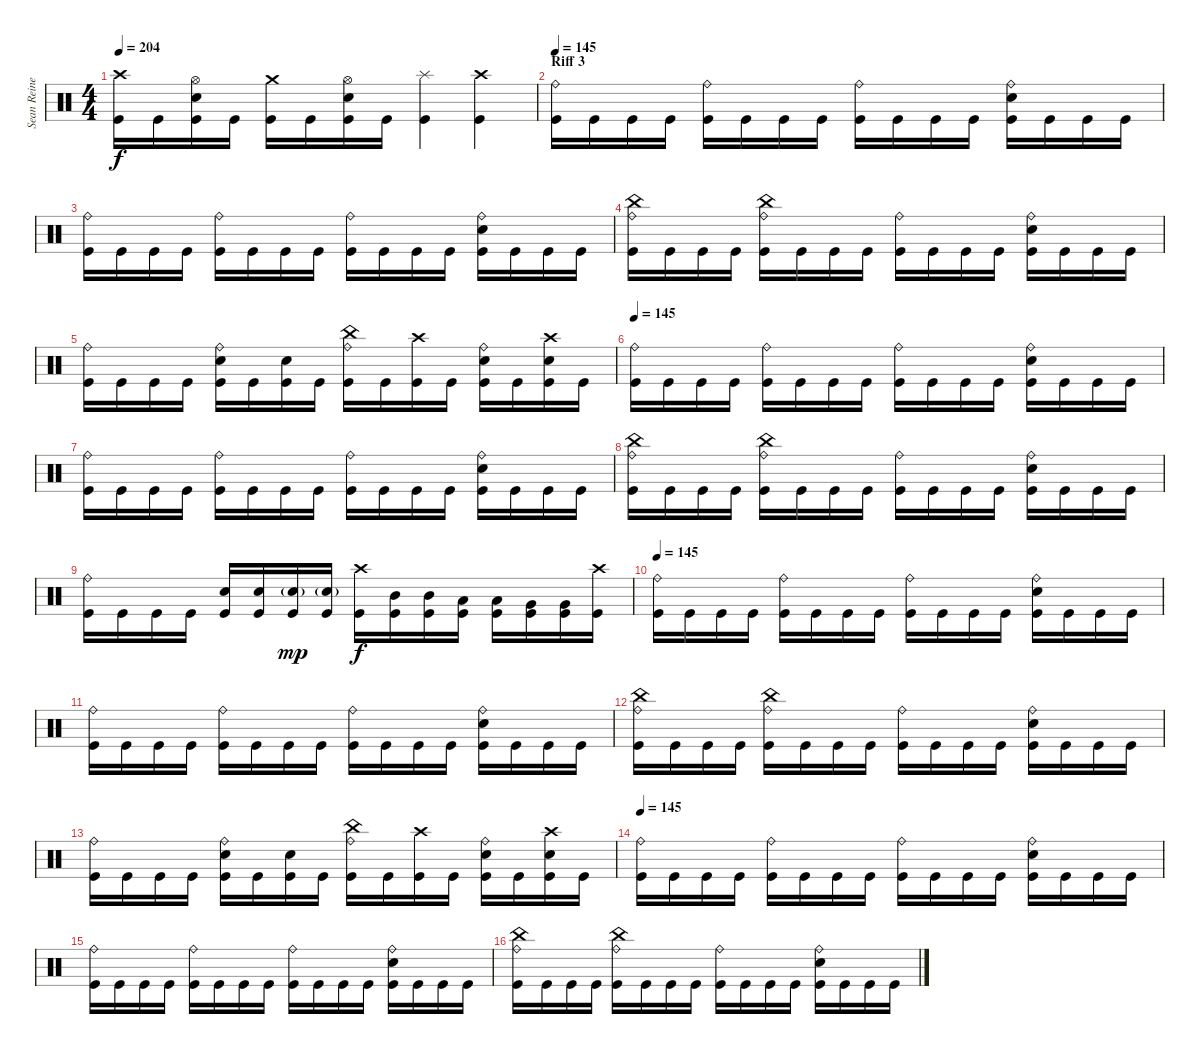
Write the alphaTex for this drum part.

\track ("Sean Reinert" "Sean Reine") {instrument percussion}
\staff {score}
\articulation defaults
\ts (4 4)
\tempo 204
\clef neutral
\ks c
("Crash high (hit)" "Kick (hit)").16{dy f} "Kick (hit)".16 ("Hi-Hat (open)" "Snare (hit) 2" "Kick (hit)").16 "Kick (hit)".16 ("Crash medium (hit)" "Kick (hit)").16 "Kick (hit)".16 ("Hi-Hat (open)" "Snare (hit) 2" "Kick (hit)").16 "Kick (hit)".16 ("Splash (hit)" "Kick (hit)").4 ("Crash high (hit)" "Kick (hit)").4 |
\section ("" "Riff 3")
\tempo 145
("Ride (bell)" "Kick (hit)").16 "Kick (hit)".16 "Kick (hit)".16 "Kick (hit)".16 ("Ride (bell)" "Kick (hit)").16 "Kick (hit)".16 "Kick (hit)".16 "Kick (hit)".16 ("Ride (bell)" "Kick (hit)").16 "Kick (hit)".16 "Kick (hit)".16 "Kick (hit)".16 ("Ride (bell)" "Snare (hit) 2" "Kick (hit)").16 "Kick (hit)".16 "Kick (hit)".16 "Kick (hit)".16 |
("Ride (bell)" "Kick (hit)").16 "Kick (hit)".16 "Kick (hit)".16 "Kick (hit)".16 ("Ride (bell)" "Kick (hit)").16 "Kick (hit)".16 "Kick (hit)".16 "Kick (hit)".16 ("Ride (bell)" "Kick (hit)").16 "Kick (hit)".16 "Kick (hit)".16 "Kick (hit)".16 ("Ride (bell)" "Snare (hit) 2" "Kick (hit)").16 "Kick (hit)".16 "Kick (hit)".16 "Kick (hit)".16 |
("China (hit)" "Ride (bell)" "Kick (hit)").16 "Kick (hit)".16 "Kick (hit)".16 "Kick (hit)".16 ("China (hit)" "Ride (bell)" "Kick (hit)").16 "Kick (hit)".16 "Kick (hit)".16 "Kick (hit)".16 ("Ride (bell)" "Kick (hit)").16 "Kick (hit)".16 "Kick (hit)".16 "Kick (hit)".16 ("Ride (bell)" "Snare (hit) 2" "Kick (hit)").16 "Kick (hit)".16 "Kick (hit)".16 "Kick (hit)".16 |
("Ride (bell)" "Kick (hit)").16 "Kick (hit)".16 "Kick (hit)".16 "Kick (hit)".16 ("Ride (bell)" "Snare (hit) 2" "Kick (hit)").16 "Kick (hit)".16 ("Snare (hit) 2" "Kick (hit)").16 "Kick (hit)".16 ("China (hit)" "Ride (bell)" "Kick (hit)").16 "Kick (hit)".16 ("Crash high (hit)" "Kick (hit)").16 "Kick (hit)".16 ("Ride (bell)" "Snare (hit) 2" "Kick (hit)").16 "Kick (hit)".16 ("Crash high (hit)" "Snare (hit) 2" "Kick (hit)").16 "Kick (hit)".16 |
\tempo 145
("Ride (bell)" "Kick (hit)").16 "Kick (hit)".16 "Kick (hit)".16 "Kick (hit)".16 ("Ride (bell)" "Kick (hit)").16 "Kick (hit)".16 "Kick (hit)".16 "Kick (hit)".16 ("Ride (bell)" "Kick (hit)").16 "Kick (hit)".16 "Kick (hit)".16 "Kick (hit)".16 ("Ride (bell)" "Snare (hit) 2" "Kick (hit)").16 "Kick (hit)".16 "Kick (hit)".16 "Kick (hit)".16 |
("Ride (bell)" "Kick (hit)").16 "Kick (hit)".16 "Kick (hit)".16 "Kick (hit)".16 ("Ride (bell)" "Kick (hit)").16 "Kick (hit)".16 "Kick (hit)".16 "Kick (hit)".16 ("Ride (bell)" "Kick (hit)").16 "Kick (hit)".16 "Kick (hit)".16 "Kick (hit)".16 ("Ride (bell)" "Snare (hit) 2" "Kick (hit)").16 "Kick (hit)".16 "Kick (hit)".16 "Kick (hit)".16 |
("China (hit)" "Ride (bell)" "Kick (hit)").16 "Kick (hit)".16 "Kick (hit)".16 "Kick (hit)".16 ("China (hit)" "Ride (bell)" "Kick (hit)").16 "Kick (hit)".16 "Kick (hit)".16 "Kick (hit)".16 ("Ride (bell)" "Kick (hit)").16 "Kick (hit)".16 "Kick (hit)".16 "Kick (hit)".16 ("Ride (bell)" "Snare (hit) 2" "Kick (hit)").16 "Kick (hit)".16 "Kick (hit)".16 "Kick (hit)".16 |
("Ride (bell)" "Kick (hit)").16 "Kick (hit)".16 "Kick (hit)".16 "Kick (hit)".16 ("Snare (hit) 2" "Kick (hit)").16 ("Snare (hit) 2" "Kick (hit)").16 ("Snare (hit) 2"{g} "Kick (hit)").16{dy mp} ("Snare (hit) 2"{g} "Kick (hit)").16 ("Crash high (hit)" "Kick (hit)").16{dy f} ("Mid Tom (hit)" "Kick (hit)").16 ("Mid Tom (hit)" "Kick (hit)").16 ("Low Tom (hit)" "Kick (hit)").16 ("Low Tom (hit)" "Kick (hit)").16 ("Very Low Tom (hit)" "Kick (hit)").16 ("Very Low Tom (hit)" "Kick (hit)").16 ("Crash high (hit)" "Kick (hit)").16 |
\tempo 145
("Ride (bell)" "Kick (hit)").16 "Kick (hit)".16 "Kick (hit)".16 "Kick (hit)".16 ("Ride (bell)" "Kick (hit)").16 "Kick (hit)".16 "Kick (hit)".16 "Kick (hit)".16 ("Ride (bell)" "Kick (hit)").16 "Kick (hit)".16 "Kick (hit)".16 "Kick (hit)".16 ("Ride (bell)" "Snare (hit) 2" "Kick (hit)").16 "Kick (hit)".16 "Kick (hit)".16 "Kick (hit)".16 |
("Ride (bell)" "Kick (hit)").16 "Kick (hit)".16 "Kick (hit)".16 "Kick (hit)".16 ("Ride (bell)" "Kick (hit)").16 "Kick (hit)".16 "Kick (hit)".16 "Kick (hit)".16 ("Ride (bell)" "Kick (hit)").16 "Kick (hit)".16 "Kick (hit)".16 "Kick (hit)".16 ("Ride (bell)" "Snare (hit) 2" "Kick (hit)").16 "Kick (hit)".16 "Kick (hit)".16 "Kick (hit)".16 |
("China (hit)" "Ride (bell)" "Kick (hit)").16 "Kick (hit)".16 "Kick (hit)".16 "Kick (hit)".16 ("China (hit)" "Ride (bell)" "Kick (hit)").16 "Kick (hit)".16 "Kick (hit)".16 "Kick (hit)".16 ("Ride (bell)" "Kick (hit)").16 "Kick (hit)".16 "Kick (hit)".16 "Kick (hit)".16 ("Ride (bell)" "Snare (hit) 2" "Kick (hit)").16 "Kick (hit)".16 "Kick (hit)".16 "Kick (hit)".16 |
("Ride (bell)" "Kick (hit)").16 "Kick (hit)".16 "Kick (hit)".16 "Kick (hit)".16 ("Ride (bell)" "Snare (hit) 2" "Kick (hit)").16 "Kick (hit)".16 ("Snare (hit) 2" "Kick (hit)").16 "Kick (hit)".16 ("China (hit)" "Ride (bell)" "Kick (hit)").16 "Kick (hit)".16 ("Crash high (hit)" "Kick (hit)").16 "Kick (hit)".16 ("Ride (bell)" "Snare (hit) 2" "Kick (hit)").16 "Kick (hit)".16 ("Crash high (hit)" "Snare (hit) 2" "Kick (hit)").16 "Kick (hit)".16 |
\tempo 145
("Ride (bell)" "Kick (hit)").16 "Kick (hit)".16 "Kick (hit)".16 "Kick (hit)".16 ("Ride (bell)" "Kick (hit)").16 "Kick (hit)".16 "Kick (hit)".16 "Kick (hit)".16 ("Ride (bell)" "Kick (hit)").16 "Kick (hit)".16 "Kick (hit)".16 "Kick (hit)".16 ("Ride (bell)" "Snare (hit) 2" "Kick (hit)").16 "Kick (hit)".16 "Kick (hit)".16 "Kick (hit)".16 |
("Ride (bell)" "Kick (hit)").16 "Kick (hit)".16 "Kick (hit)".16 "Kick (hit)".16 ("Ride (bell)" "Kick (hit)").16 "Kick (hit)".16 "Kick (hit)".16 "Kick (hit)".16 ("Ride (bell)" "Kick (hit)").16 "Kick (hit)".16 "Kick (hit)".16 "Kick (hit)".16 ("Ride (bell)" "Snare (hit) 2" "Kick (hit)").16 "Kick (hit)".16 "Kick (hit)".16 "Kick (hit)".16 |
("China (hit)" "Ride (bell)" "Kick (hit)").16 "Kick (hit)".16 "Kick (hit)".16 "Kick (hit)".16 ("China (hit)" "Ride (bell)" "Kick (hit)").16 "Kick (hit)".16 "Kick (hit)".16 "Kick (hit)".16 ("Ride (bell)" "Kick (hit)").16 "Kick (hit)".16 "Kick (hit)".16 "Kick (hit)".16 ("Ride (bell)" "Snare (hit) 2" "Kick (hit)").16 "Kick (hit)".16 "Kick (hit)".16 "Kick (hit)".16
